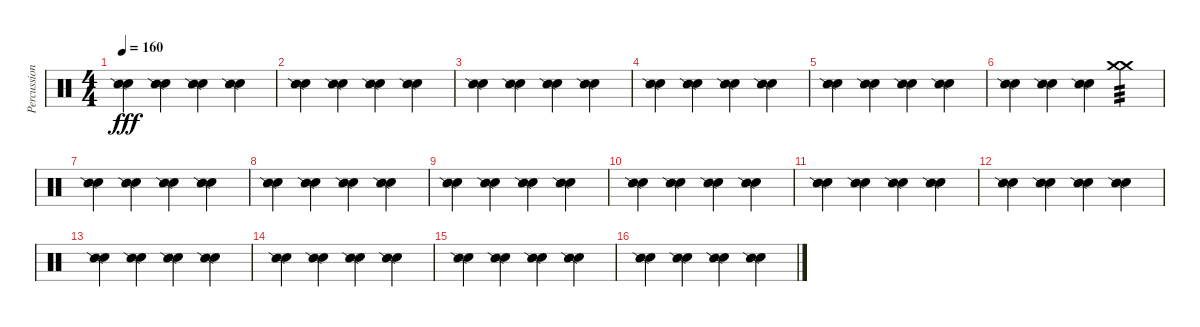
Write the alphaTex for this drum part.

\track ("Percussion 2" "Percussion") {instrument percussion}
\staff {score}
\articulation defaults
\ts (4 4)
\tempo 160
\clef neutral
\ks c
("Hand Clap (hit)" "Snare (side stick) 2").4{dy fff} ("Hand Clap (hit)" "Snare (side stick) 2").4 ("Hand Clap (hit)" "Snare (side stick) 2").4 ("Hand Clap (hit)" "Snare (side stick) 2").4 |
("Hand Clap (hit)" "Snare (side stick) 2").4 ("Hand Clap (hit)" "Snare (side stick) 2").4 ("Hand Clap (hit)" "Snare (side stick) 2").4 ("Hand Clap (hit)" "Snare (side stick) 2").4 |
("Hand Clap (hit)" "Snare (side stick) 2").4 ("Hand Clap (hit)" "Snare (side stick) 2").4 ("Hand Clap (hit)" "Snare (side stick) 2").4 ("Hand Clap (hit)" "Snare (side stick) 2").4 |
("Hand Clap (hit)" "Snare (side stick) 2").4 ("Hand Clap (hit)" "Snare (side stick) 2").4 ("Hand Clap (hit)" "Snare (side stick) 2").4 ("Hand Clap (hit)" "Snare (side stick) 2").4 |
("Hand Clap (hit)" "Snare (side stick) 2").4 ("Hand Clap (hit)" "Snare (side stick) 2").4 ("Hand Clap (hit)" "Snare (side stick) 2").4 ("Hand Clap (hit)" "Snare (side stick) 2").4 |
("Hand Clap (hit)" "Snare (side stick) 2").4 ("Hand Clap (hit)" "Snare (side stick) 2").4 ("Hand Clap (hit)" "Snare (side stick) 2").4 ("Crash medium (hit)" "Crash medium (hit)").4{tp 3} |
("Hand Clap (hit)" "Snare (side stick) 2").4 ("Hand Clap (hit)" "Snare (side stick) 2").4 ("Hand Clap (hit)" "Snare (side stick) 2").4 ("Hand Clap (hit)" "Snare (side stick) 2").4 |
("Hand Clap (hit)" "Snare (side stick) 2").4 ("Hand Clap (hit)" "Snare (side stick) 2").4 ("Hand Clap (hit)" "Snare (side stick) 2").4 ("Hand Clap (hit)" "Snare (side stick) 2").4 |
("Hand Clap (hit)" "Snare (side stick) 2").4 ("Hand Clap (hit)" "Snare (side stick) 2").4 ("Hand Clap (hit)" "Snare (side stick) 2").4 ("Hand Clap (hit)" "Snare (side stick) 2").4 |
("Hand Clap (hit)" "Snare (side stick) 2").4 ("Hand Clap (hit)" "Snare (side stick) 2").4 ("Hand Clap (hit)" "Snare (side stick) 2").4 ("Hand Clap (hit)" "Snare (side stick) 2").4 |
("Hand Clap (hit)" "Snare (side stick) 2").4 ("Hand Clap (hit)" "Snare (side stick) 2").4 ("Hand Clap (hit)" "Snare (side stick) 2").4 ("Hand Clap (hit)" "Snare (side stick) 2").4 |
("Hand Clap (hit)" "Snare (side stick) 2").4 ("Hand Clap (hit)" "Snare (side stick) 2").4 ("Hand Clap (hit)" "Snare (side stick) 2").4 ("Hand Clap (hit)" "Snare (side stick) 2").4 |
("Hand Clap (hit)" "Snare (side stick) 2").4 ("Hand Clap (hit)" "Snare (side stick) 2").4 ("Hand Clap (hit)" "Snare (side stick) 2").4 ("Hand Clap (hit)" "Snare (side stick) 2").4 |
("Hand Clap (hit)" "Snare (side stick) 2").4 ("Hand Clap (hit)" "Snare (side stick) 2").4 ("Hand Clap (hit)" "Snare (side stick) 2").4 ("Hand Clap (hit)" "Snare (side stick) 2").4 |
("Hand Clap (hit)" "Snare (side stick) 2").4 ("Hand Clap (hit)" "Snare (side stick) 2").4 ("Hand Clap (hit)" "Snare (side stick) 2").4 ("Hand Clap (hit)" "Snare (side stick) 2").4 |
("Hand Clap (hit)" "Snare (side stick) 2").4 ("Hand Clap (hit)" "Snare (side stick) 2").4 ("Hand Clap (hit)" "Snare (side stick) 2").4 ("Hand Clap (hit)" "Snare (side stick) 2").4
